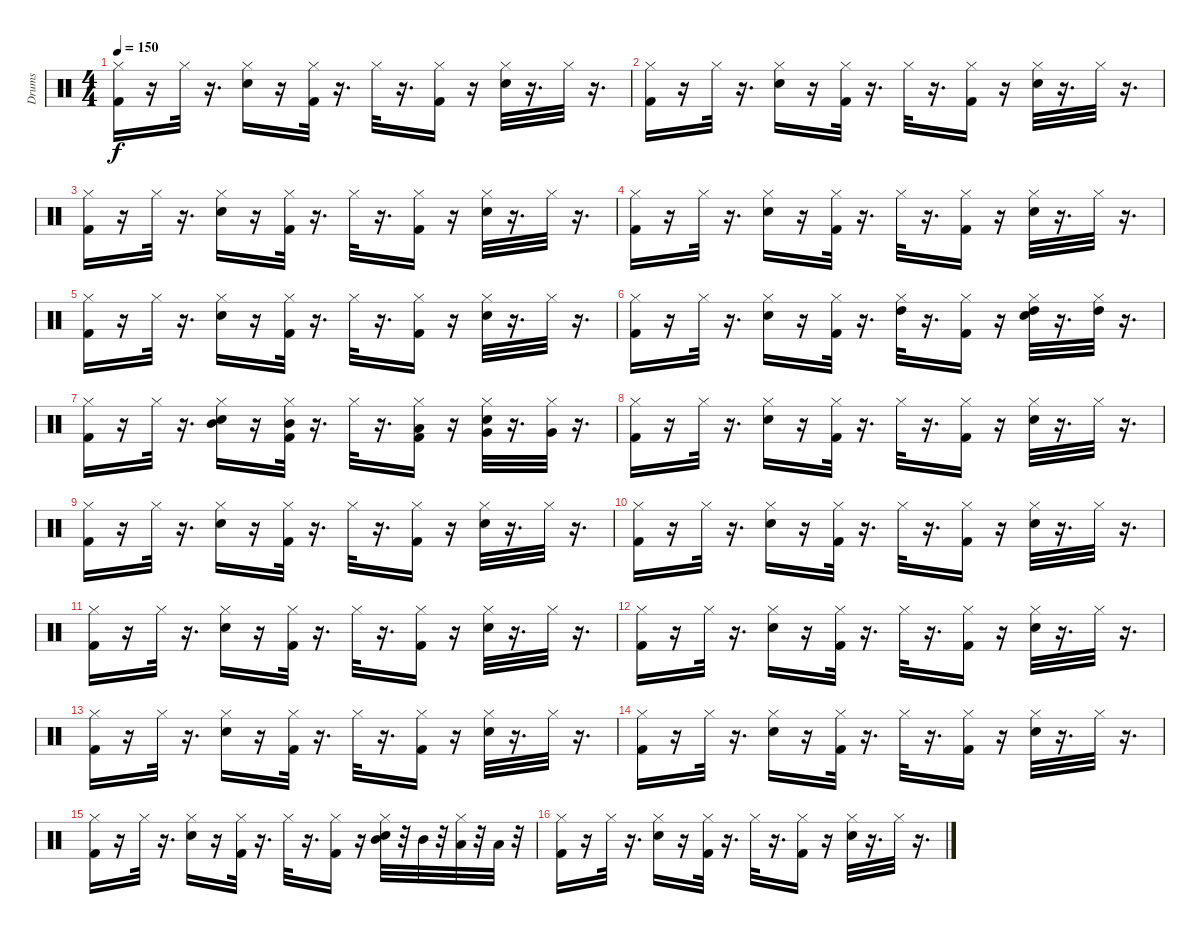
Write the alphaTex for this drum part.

\track ("Drums" "Drums") {instrument percussion}
\staff {score}
\articulation defaults
\ts (4 4)
\tempo 150
\clef neutral
\ks c
("Kick (hit) 2" "Hi-Hat (closed)").16{dy f} r.16 "Hi-Hat (closed)".32 r.16{d} ("Electric Snare (hit)" "Hi-Hat (closed)").16 r.16 ("Kick (hit) 2" "Hi-Hat (closed)").32 r.16{d} "Hi-Hat (closed)".32 r.16{d} ("Kick (hit) 2" "Hi-Hat (closed)").16 r.16 ("Electric Snare (hit)" "Hi-Hat (closed)").32 r.16{d} "Hi-Hat (closed)".32 r.16{d} |
("Kick (hit) 2" "Hi-Hat (closed)").16 r.16 "Hi-Hat (closed)".32 r.16{d} ("Electric Snare (hit)" "Hi-Hat (closed)").16 r.16 ("Kick (hit) 2" "Hi-Hat (closed)").32 r.16{d} "Hi-Hat (closed)".32 r.16{d} ("Kick (hit) 2" "Hi-Hat (closed)").16 r.16 ("Electric Snare (hit)" "Hi-Hat (closed)").32 r.16{d} "Hi-Hat (closed)".32 r.16{d} |
("Kick (hit) 2" "Hi-Hat (closed)").16 r.16 "Hi-Hat (closed)".32 r.16{d} ("Electric Snare (hit)" "Hi-Hat (closed)").16 r.16 ("Kick (hit) 2" "Hi-Hat (closed)").32 r.16{d} "Hi-Hat (closed)".32 r.16{d} ("Kick (hit) 2" "Hi-Hat (closed)").16 r.16 ("Electric Snare (hit)" "Hi-Hat (closed)").32 r.16{d} "Hi-Hat (closed)".32 r.16{d} |
("Hi-Hat (closed)" "Kick (hit) 2").16 r.16 "Hi-Hat (closed)".32 r.16{d} ("Electric Snare (hit)" "Hi-Hat (closed)").16 r.16 ("Kick (hit) 2" "Hi-Hat (closed)").32 r.16{d} "Hi-Hat (closed)".32 r.16{d} ("Kick (hit) 2" "Hi-Hat (closed)").16 r.16 ("Electric Snare (hit)" "Hi-Hat (closed)").32 r.16{d} "Hi-Hat (closed)".32 r.16{d} |
("Kick (hit) 2" "Hi-Hat (closed)").16 r.16 "Hi-Hat (closed)".32 r.16{d} ("Electric Snare (hit)" "Hi-Hat (closed)").16 r.16 ("Kick (hit) 2" "Hi-Hat (closed)").32 r.16{d} "Hi-Hat (closed)".32 r.16{d} ("Kick (hit) 2" "Hi-Hat (closed)").16 r.16 ("Electric Snare (hit)" "Hi-Hat (closed)").32 r.16{d} "Hi-Hat (closed)".32 r.16{d} |
("Kick (hit) 2" "Hi-Hat (closed)").16 r.16 "Hi-Hat (closed)".32 r.16{d} ("Electric Snare (hit)" "Hi-Hat (closed)").16 r.16 ("Kick (hit) 2" "Hi-Hat (closed)").32 r.16{d} ("Hi-Hat (closed)" "High Tom (hit)").32 r.16{d} ("Kick (hit) 2" "Hi-Hat (closed)").16 r.16 ("Electric Snare (hit)" "Hi-Hat (closed)" "High Tom (hit)").32 r.16{d} ("Hi-Hat (closed)" "High Tom (hit)").32 r.16{d} |
("Kick (hit) 2" "Hi-Hat (closed)").16 r.16 "Hi-Hat (closed)".32 r.16{d} ("Electric Snare (hit)" "Hi-Hat (closed)" "Mid Tom (hit)").16 r.16 ("Kick (hit) 2" "Hi-Hat (closed)" "Mid Tom (hit)").32 r.16{d} "Hi-Hat (closed)".32 r.16{d} ("Kick (hit) 2" "Hi-Hat (closed)" "Low Tom (hit)").16 r.16 ("Electric Snare (hit)" "Hi-Hat (closed)" "Very Low Tom (hit)").32 r.16{d} ("Hi-Hat (closed)" "Very Low Tom (hit)").32 r.16{d} |
("Hi-Hat (closed)" "Kick (hit) 2").16 r.16 "Hi-Hat (closed)".32 r.16{d} ("Electric Snare (hit)" "Hi-Hat (closed)").16 r.16 ("Kick (hit) 2" "Hi-Hat (closed)").32 r.16{d} "Hi-Hat (closed)".32 r.16{d} ("Kick (hit) 2" "Hi-Hat (closed)").16 r.16 ("Electric Snare (hit)" "Hi-Hat (closed)").32 r.16{d} "Hi-Hat (closed)".32 r.16{d} |
("Kick (hit) 2" "Hi-Hat (closed)").16 r.16 "Hi-Hat (closed)".32 r.16{d} ("Electric Snare (hit)" "Hi-Hat (closed)").16 r.16 ("Kick (hit) 2" "Hi-Hat (closed)").32 r.16{d} "Hi-Hat (closed)".32 r.16{d} ("Kick (hit) 2" "Hi-Hat (closed)").16 r.16 ("Electric Snare (hit)" "Hi-Hat (closed)").32 r.16{d} "Hi-Hat (closed)".32 r.16{d} |
("Kick (hit) 2" "Hi-Hat (closed)").16 r.16 "Hi-Hat (closed)".32 r.16{d} ("Electric Snare (hit)" "Hi-Hat (closed)").16 r.16 ("Kick (hit) 2" "Hi-Hat (closed)").32 r.16{d} "Hi-Hat (closed)".32 r.16{d} ("Kick (hit) 2" "Hi-Hat (closed)").16 r.16 ("Electric Snare (hit)" "Hi-Hat (closed)").32 r.16{d} "Hi-Hat (closed)".32 r.16{d} |
("Kick (hit) 2" "Hi-Hat (closed)").16 r.16 "Hi-Hat (closed)".32 r.16{d} ("Electric Snare (hit)" "Hi-Hat (closed)").16 r.16 ("Kick (hit) 2" "Hi-Hat (closed)").32 r.16{d} "Hi-Hat (closed)".32 r.16{d} ("Kick (hit) 2" "Hi-Hat (closed)").16 r.16 ("Electric Snare (hit)" "Hi-Hat (closed)").32 r.16{d} "Hi-Hat (closed)".32 r.16{d} |
("Hi-Hat (closed)" "Kick (hit) 2").16 r.16 "Hi-Hat (closed)".32 r.16{d} ("Electric Snare (hit)" "Hi-Hat (closed)").16 r.16 ("Kick (hit) 2" "Hi-Hat (closed)").32 r.16{d} "Hi-Hat (closed)".32 r.16{d} ("Kick (hit) 2" "Hi-Hat (closed)").16 r.16 ("Electric Snare (hit)" "Hi-Hat (closed)").32 r.16{d} "Hi-Hat (closed)".32 r.16{d} |
("Kick (hit) 2" "Hi-Hat (closed)").16 r.16 "Hi-Hat (closed)".32 r.16{d} ("Electric Snare (hit)" "Hi-Hat (closed)").16 r.16 ("Kick (hit) 2" "Hi-Hat (closed)").32 r.16{d} "Hi-Hat (closed)".32 r.16{d} ("Kick (hit) 2" "Hi-Hat (closed)").16 r.16 ("Electric Snare (hit)" "Hi-Hat (closed)").32 r.16{d} "Hi-Hat (closed)".32 r.16{d} |
("Kick (hit) 2" "Hi-Hat (closed)").16 r.16 "Hi-Hat (closed)".32 r.16{d} ("Electric Snare (hit)" "Hi-Hat (closed)").16 r.16 ("Kick (hit) 2" "Hi-Hat (closed)").32 r.16{d} "Hi-Hat (closed)".32 r.16{d} ("Kick (hit) 2" "Hi-Hat (closed)").16 r.16 ("Electric Snare (hit)" "Hi-Hat (closed)").32 r.16{d} "Hi-Hat (closed)".32 r.16{d} |
("Kick (hit) 2" "Hi-Hat (closed)").16 r.16 "Hi-Hat (closed)".32 r.16{d} ("Electric Snare (hit)" "Hi-Hat (closed)").16 r.16 ("Kick (hit) 2" "Hi-Hat (closed)").32 r.16{d} "Hi-Hat (closed)".32 r.16{d} ("Kick (hit) 2" "Hi-Hat (closed)").16 r.16 ("Electric Snare (hit)" "Hi-Hat (closed)" "Mid Tom (hit)").32 r.32 "Mid Tom (hit)".32 r.32 ("Hi-Hat (closed)" "Low Tom (hit)").32 r.32 "Low Tom (hit)".32 r.32 |
("Hi-Hat (closed)" "Kick (hit) 2").16 r.16 "Hi-Hat (closed)".32 r.16{d} ("Electric Snare (hit)" "Hi-Hat (closed)").16 r.16 ("Kick (hit) 2" "Hi-Hat (closed)").32 r.16{d} "Hi-Hat (closed)".32 r.16{d} ("Kick (hit) 2" "Hi-Hat (closed)").16 r.16 ("Electric Snare (hit)" "Hi-Hat (closed)").32 r.16{d} "Hi-Hat (closed)".32 r.16{d}
